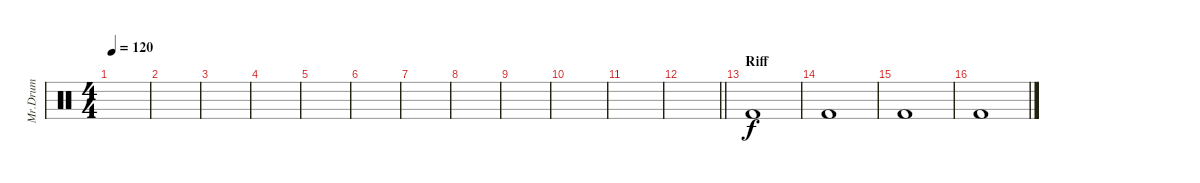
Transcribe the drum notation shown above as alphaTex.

\track ("Mr.Drum" "Mr.Drum") {instrument percussion}
\staff {score}
\articulation defaults
\ts (4 4)
\tempo 120
\clef neutral
\ks c
|
|
|
|
|
|
|
|
|
|
|
\barLineRight lightlight
|
\section ("" "Riff")
"Kick (hit) 2".1 |
"Kick (hit) 2".1 |
"Kick (hit) 2".1 |
"Kick (hit) 2".1
